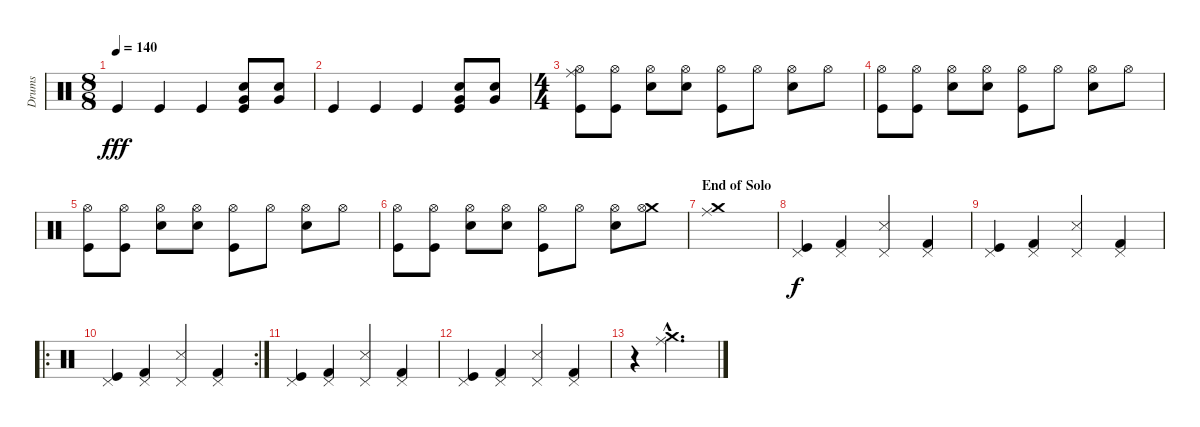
\track ("Drums" "Drums") {instrument percussion}
\staff {score}
\articulation defaults
\ts (8 8)
\tempo 140
\clef neutral
\ks c "Kick (hit)".4{dy fff} "Kick (hit)".4 "Kick (hit)".4
("Snare (hit) 2" "Very Low Tom (hit)" "Kick (hit)").8 ("Snare (hit) 2" "Very Low Tom (hit)").8 |
"Kick (hit)".4 "Kick (hit)".4 "Kick (hit)".4 ("Snare (hit) 2" "Very Low Tom (hit)" "Kick (hit)").8 ("Snare (hit) 2" "Very Low Tom (hit)").8 |
\ts (4 4)
("Ride (middle)" "Kick (hit)" "Hi-Hat (open)").8 ("Kick (hit)" "Hi-Hat (open)").8 ("Snare (hit) 2" "Hi-Hat (open)").8 ("Snare (hit) 2" "Hi-Hat (open)").8 ("Kick (hit)" "Hi-Hat (open)").8 "Hi-Hat (open)".8 ("Snare (hit) 2" "Hi-Hat (open)").8 "Hi-Hat (open)".8 |
("Kick (hit)" "Hi-Hat (open)").8 ("Kick (hit)" "Hi-Hat (open)").8 ("Snare (hit) 2" "Hi-Hat (open)").8 ("Snare (hit) 2" "Hi-Hat (open)").8 ("Kick (hit)" "Hi-Hat (open)").8 "Hi-Hat (open)".8 ("Snare (hit) 2" "Hi-Hat (open)").8 "Hi-Hat (open)".8 |
("Kick (hit)" "Hi-Hat (open)").8 ("Kick (hit)" "Hi-Hat (open)").8 ("Snare (hit) 2" "Hi-Hat (open)").8 ("Snare (hit) 2" "Hi-Hat (open)").8 ("Kick (hit)" "Hi-Hat (open)").8 "Hi-Hat (open)".8 ("Snare (hit) 2" "Hi-Hat (open)").8 "Hi-Hat (open)".8 |
("Kick (hit)" "Hi-Hat (open)").8 ("Kick (hit)" "Hi-Hat (open)").8 ("Snare (hit) 2" "Hi-Hat (open)").8 ("Snare (hit) 2" "Hi-Hat (open)").8 ("Kick (hit)" "Hi-Hat (open)").8 "Hi-Hat (open)".8 ("Snare (hit) 2" "Hi-Hat (open)").8 ("Crash medium (hit)" "Hi-Hat (open)").8 |
\section ("" "End of Solo")
("Ride (middle)" "Crash medium (hit)").1 |
("Kick (hit)" "Pedal Hi-Hat (hit)").4{dy f volume 13} ("Kick (hit) 2" "Pedal Hi-Hat (hit)").4 ("Snare (side stick) 3" "Pedal Hi-Hat (hit)").4 ("Kick (hit) 2" "Pedal Hi-Hat (hit)").4 |
("Kick (hit)" "Pedal Hi-Hat (hit)").4 ("Kick (hit) 2" "Pedal Hi-Hat (hit)").4 ("Snare (side stick) 3" "Pedal Hi-Hat (hit)").4 ("Kick (hit) 2" "Pedal Hi-Hat (hit)").4 |
\ro
\rc 2
("Kick (hit)" "Pedal Hi-Hat (hit)").4 ("Kick (hit) 2" "Pedal Hi-Hat (hit)").4 ("Snare (side stick) 3" "Pedal Hi-Hat (hit)").4 ("Kick (hit) 2" "Pedal Hi-Hat (hit)").4 |
("Kick (hit)" "Pedal Hi-Hat (hit)").4 ("Kick (hit) 2" "Pedal Hi-Hat (hit)").4 ("Snare (side stick) 3" "Pedal Hi-Hat (hit)").4 ("Kick (hit) 2" "Pedal Hi-Hat (hit)").4 |
("Kick (hit)" "Pedal Hi-Hat (hit)").4 ("Kick (hit) 2" "Pedal Hi-Hat (hit)").4 ("Snare (side stick) 3" "Pedal Hi-Hat (hit)").4 ("Kick (hit) 2" "Pedal Hi-Hat (hit)").4 |
r.4 ("Ride (middle)"{hac} "Crash medium (hit)"{hac}).2{d volume 16}
